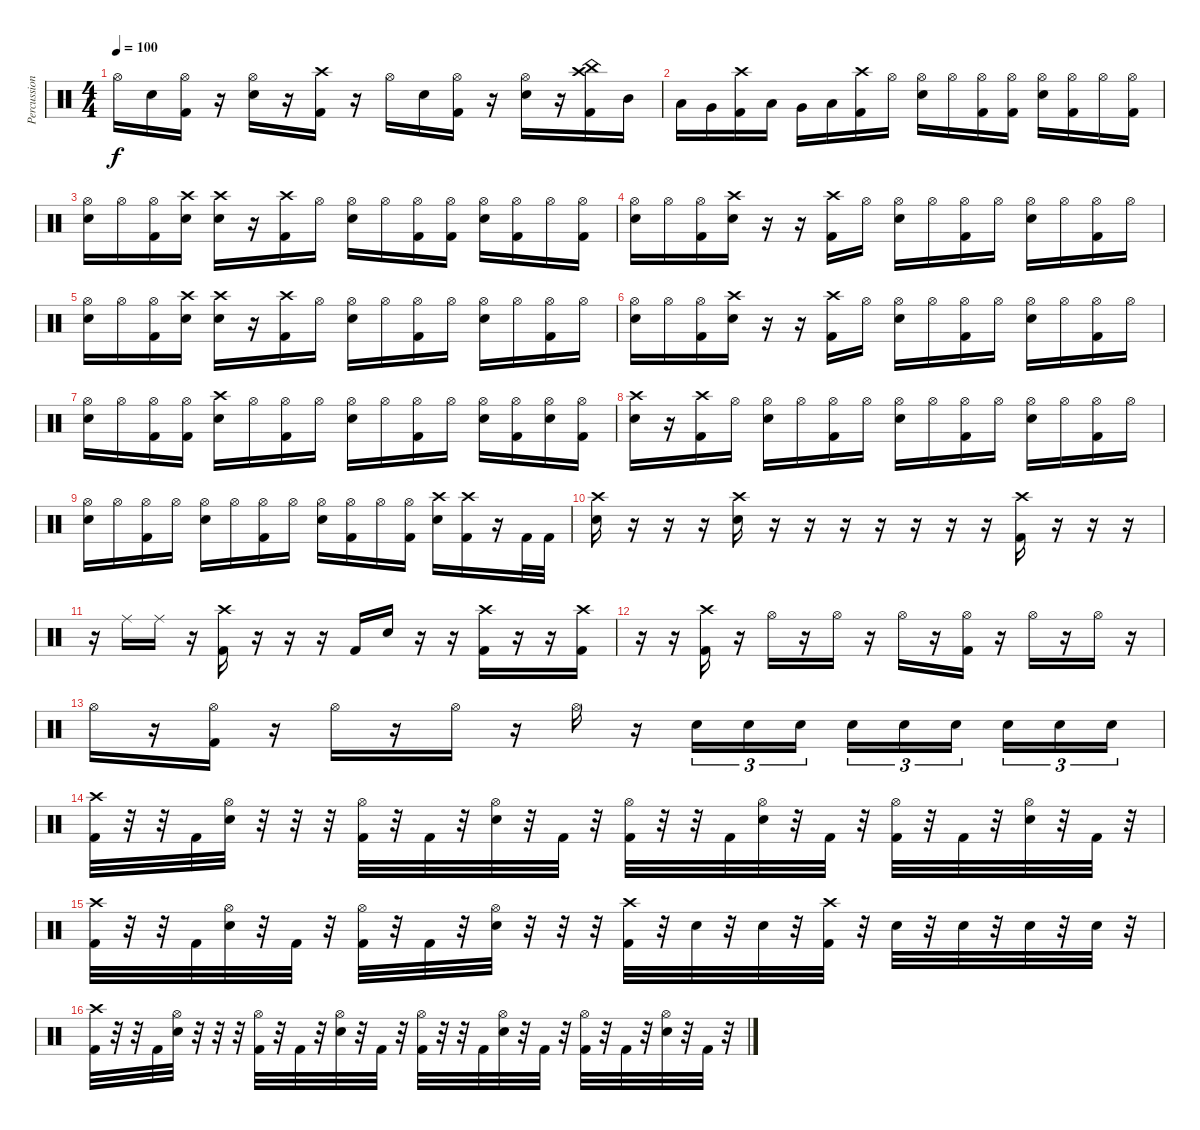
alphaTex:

\track ("Percussion" "Percussion") {instrument percussion}
\staff {score}
\articulation defaults
\ts (4 4)
\tempo 100
\clef neutral
\ks c "Hi-Hat (open)".16{dy f} "Snare (hit) 2".16
("Hi-Hat (open)" "Kick (hit) 2").16 r.16 ("Hi-Hat (open)" "Snare (hit) 2").16 r.16 ("Crash high (hit)" "Kick (hit) 2").16 r.16 "Hi-Hat (open)".16 "Snare (hit) 2".16 ("Hi-Hat (open)" "Kick (hit) 2").16 r.16 ("Hi-Hat (open)" "Snare (hit) 2").16 r.16 ("China (hit)" "Crash high (hit)" "Kick (hit) 2").16 "Mid Tom (hit)".16 |
"Low Tom (hit)".16 "Very Low Tom (hit)".16 ("Crash high (hit)" "Kick (hit) 2").16 "Low Tom (hit)".16 "Very Low Tom (hit)".16 "Low Floor Tom (hit)".16 ("Crash high (hit)" "Kick (hit) 2").16 "Hi-Hat (open)".16 ("Hi-Hat (open)" "Snare (hit) 2").16 "Hi-Hat (open)".16 ("Hi-Hat (open)" "Kick (hit) 2").16 ("Hi-Hat (open)" "Kick (hit) 2").16 ("Hi-Hat (open)" "Snare (hit) 2").16 ("Hi-Hat (open)" "Kick (hit) 2").16 "Hi-Hat (open)".16 ("Hi-Hat (open)" "Kick (hit) 2").16 |
("Hi-Hat (open)" "Snare (hit) 2").16 "Hi-Hat (open)".16 ("Hi-Hat (open)" "Kick (hit) 2").16 ("Crash high (hit)" "Snare (hit) 2").16 ("Crash high (hit)" "Snare (hit) 2").16 r.16 ("Crash high (hit)" "Kick (hit) 2").16 "Hi-Hat (open)".16 ("Hi-Hat (open)" "Snare (hit) 2").16 "Hi-Hat (open)".16 ("Hi-Hat (open)" "Kick (hit) 2").16 ("Hi-Hat (open)" "Kick (hit) 2").16 ("Hi-Hat (open)" "Snare (hit) 2").16 ("Hi-Hat (open)" "Kick (hit) 2").16 "Hi-Hat (open)".16 ("Hi-Hat (open)" "Kick (hit) 2").16 |
("Hi-Hat (open)" "Snare (hit) 2").16 "Hi-Hat (open)".16 ("Hi-Hat (open)" "Kick (hit) 2").16 ("Crash high (hit)" "Snare (hit) 2").16 r.16 r.16 ("Crash high (hit)" "Kick (hit) 2").16 "Hi-Hat (open)".16 ("Hi-Hat (open)" "Snare (hit) 2").16 "Hi-Hat (open)".16 ("Hi-Hat (open)" "Kick (hit) 2").16 "Hi-Hat (open)".16 ("Hi-Hat (open)" "Snare (hit) 2").16 "Hi-Hat (open)".16 ("Hi-Hat (open)" "Kick (hit) 2").16 "Hi-Hat (open)".16 |
("Hi-Hat (open)" "Snare (hit) 2").16 "Hi-Hat (open)".16 ("Hi-Hat (open)" "Kick (hit) 2").16 ("Crash high (hit)" "Snare (hit) 2").16 ("Crash high (hit)" "Snare (hit) 2").16 r.16 ("Crash high (hit)" "Kick (hit) 2").16 "Hi-Hat (open)".16 ("Hi-Hat (open)" "Snare (hit) 2").16 "Hi-Hat (open)".16 ("Hi-Hat (open)" "Kick (hit) 2").16 "Hi-Hat (open)".16 ("Hi-Hat (open)" "Snare (hit) 2").16 "Hi-Hat (open)".16 ("Hi-Hat (open)" "Kick (hit) 2").16 "Hi-Hat (open)".16 |
("Hi-Hat (open)" "Snare (hit) 2").16 "Hi-Hat (open)".16 ("Hi-Hat (open)" "Kick (hit) 2").16 ("Crash high (hit)" "Snare (hit) 2").16 r.16 r.16 ("Crash high (hit)" "Kick (hit) 2").16 "Hi-Hat (open)".16 ("Hi-Hat (open)" "Snare (hit) 2").16 "Hi-Hat (open)".16 ("Hi-Hat (open)" "Kick (hit) 2").16 "Hi-Hat (open)".16 ("Hi-Hat (open)" "Snare (hit) 2").16 "Hi-Hat (open)".16 ("Hi-Hat (open)" "Kick (hit) 2").16 "Hi-Hat (open)".16 |
("Hi-Hat (open)" "Snare (hit) 2").16 "Hi-Hat (open)".16 ("Hi-Hat (open)" "Kick (hit) 2").16 ("Hi-Hat (open)" "Kick (hit) 2").16 ("Crash high (hit)" "Snare (hit) 2").16 "Hi-Hat (open)".16 ("Hi-Hat (open)" "Kick (hit) 2").16 "Hi-Hat (open)".16 ("Hi-Hat (open)" "Snare (hit) 2").16 "Hi-Hat (open)".16 ("Hi-Hat (open)" "Kick (hit) 2").16 "Hi-Hat (open)".16 ("Hi-Hat (open)" "Snare (hit) 2").16 ("Hi-Hat (open)" "Kick (hit) 2").16 ("Hi-Hat (open)" "Snare (hit) 2").16 ("Hi-Hat (open)" "Kick (hit) 2").16 |
("Crash high (hit)" "Snare (hit) 2").16 r.16 ("Crash high (hit)" "Kick (hit) 2").16 "Hi-Hat (open)".16 ("Hi-Hat (open)" "Snare (hit) 2").16 "Hi-Hat (open)".16 ("Hi-Hat (open)" "Kick (hit) 2").16 "Hi-Hat (open)".16 ("Hi-Hat (open)" "Snare (hit) 2").16 "Hi-Hat (open)".16 ("Hi-Hat (open)" "Kick (hit) 2").16 "Hi-Hat (open)".16 ("Hi-Hat (open)" "Snare (hit) 2").16 "Hi-Hat (open)".16 ("Hi-Hat (open)" "Kick (hit) 2").16 "Hi-Hat (open)".16 |
("Hi-Hat (open)" "Snare (hit) 2").16 "Hi-Hat (open)".16 ("Hi-Hat (open)" "Kick (hit) 2").16 "Hi-Hat (open)".16 ("Hi-Hat (open)" "Snare (hit) 2").16 "Hi-Hat (open)".16 ("Hi-Hat (open)" "Kick (hit) 2").16 "Hi-Hat (open)".16 ("Hi-Hat (open)" "Snare (hit) 2").16 ("Hi-Hat (open)" "Kick (hit) 2").16 "Hi-Hat (open)".16 ("Hi-Hat (open)" "Kick (hit) 2").16 ("Crash high (hit)" "Snare (hit) 2").16 ("Crash high (hit)" "Kick (hit) 2").16 r.16 "Kick (hit) 2".32 "Kick (hit) 2".32 |
("Crash high (hit)" "Snare (hit) 2").16 r.16 r.16 r.16 ("Crash high (hit)" "Snare (hit) 2").16 r.16 r.16 r.16 r.16 r.16 r.16 r.16 ("Crash high (hit)" "Kick (hit) 2").16 r.16 r.16 r.16 |
r.16 "Ride (middle)".16 "Ride (middle)".16 r.16 ("Crash high (hit)" "Kick (hit) 2").16 r.16 r.16 r.16 "Kick (hit) 2".16 "Snare (hit) 2".16 r.16 r.16 ("Crash high (hit)" "Kick (hit) 2").16 r.16 r.16 ("Crash high (hit)" "Kick (hit) 2").16 |
r.16 r.16 ("Crash high (hit)" "Kick (hit) 2").16 r.16 "Hi-Hat (open)".16 r.16 "Hi-Hat (open)".16 r.16 "Hi-Hat (open)".16 r.16 ("Hi-Hat (open)" "Kick (hit) 2").16 r.16 "Hi-Hat (open)".16 r.16 "Hi-Hat (open)".16 r.16 |
"Hi-Hat (open)".16 r.16 ("Hi-Hat (open)" "Kick (hit) 2").16 r.16 "Hi-Hat (open)".16 r.16 "Hi-Hat (open)".16 r.16 "Hi-Hat (open)".16 r.16 "Snare (hit) 2".16{tu (3 2)} "Snare (hit) 2".16{tu (3 2)} "Snare (hit) 2".16{tu (3 2)} "Snare (hit) 2".16{tu (3 2)} "Snare (hit) 2".16{tu (3 2)} "Snare (hit) 2".16{tu (3 2) beam splitsecondary} "Snare (hit) 2".16{tu (3 2)} "Snare (hit) 2".16{tu (3 2)} "Snare (hit) 2".16{tu (3 2)} |
("Crash high (hit)" "Kick (hit) 2").32 r.32 r.32 "Kick (hit) 2".32 ("Hi-Hat (open)" "Snare (hit) 2").32 r.32 r.32 r.32 ("Hi-Hat (open)" "Kick (hit) 2").32 r.32 "Kick (hit) 2".32 r.32 ("Hi-Hat (open)" "Snare (hit) 2").32 r.32 "Kick (hit) 2".32 r.32 ("Hi-Hat (open)" "Kick (hit) 2").32 r.32 r.32 "Kick (hit) 2".32 ("Hi-Hat (open)" "Snare (hit) 2").32 r.32 "Kick (hit) 2".32 r.32 ("Hi-Hat (open)" "Kick (hit) 2").32 r.32 "Kick (hit) 2".32 r.32 ("Hi-Hat (open)" "Snare (hit) 2").32 r.32 "Kick (hit) 2".32 r.32 |
("Crash high (hit)" "Kick (hit) 2").32 r.32 r.32 "Kick (hit) 2".32 ("Hi-Hat (open)" "Snare (hit) 2").32 r.32 "Kick (hit) 2".32 r.32 ("Hi-Hat (open)" "Kick (hit) 2").32 r.32 "Kick (hit) 2".32 r.32 ("Hi-Hat (open)" "Snare (hit) 2").32 r.32 r.32 r.32 ("Crash high (hit)" "Kick (hit) 2").32 r.32 "Snare (hit) 2".32 r.32 "Snare (hit) 2".32 r.32 ("Crash high (hit)" "Kick (hit) 2").32 r.32 "Snare (hit) 2".32 r.32 "Snare (hit) 2".32 r.32 "Snare (hit) 2".32 r.32 "Snare (hit) 2".32 r.32 |
("Crash high (hit)" "Kick (hit) 2").32 r.32 r.32 "Kick (hit) 2".32 ("Hi-Hat (open)" "Snare (hit) 2").32 r.32 r.32 r.32 ("Hi-Hat (open)" "Kick (hit) 2").32 r.32 "Kick (hit) 2".32 r.32 ("Hi-Hat (open)" "Snare (hit) 2").32 r.32 "Kick (hit) 2".32 r.32 ("Hi-Hat (open)" "Kick (hit) 2").32 r.32 r.32 "Kick (hit) 2".32 ("Hi-Hat (open)" "Snare (hit) 2").32 r.32 "Kick (hit) 2".32 r.32 ("Hi-Hat (open)" "Kick (hit) 2").32 r.32 "Kick (hit) 2".32 r.32 ("Hi-Hat (open)" "Snare (hit) 2").32 r.32 "Kick (hit) 2".32 r.32
